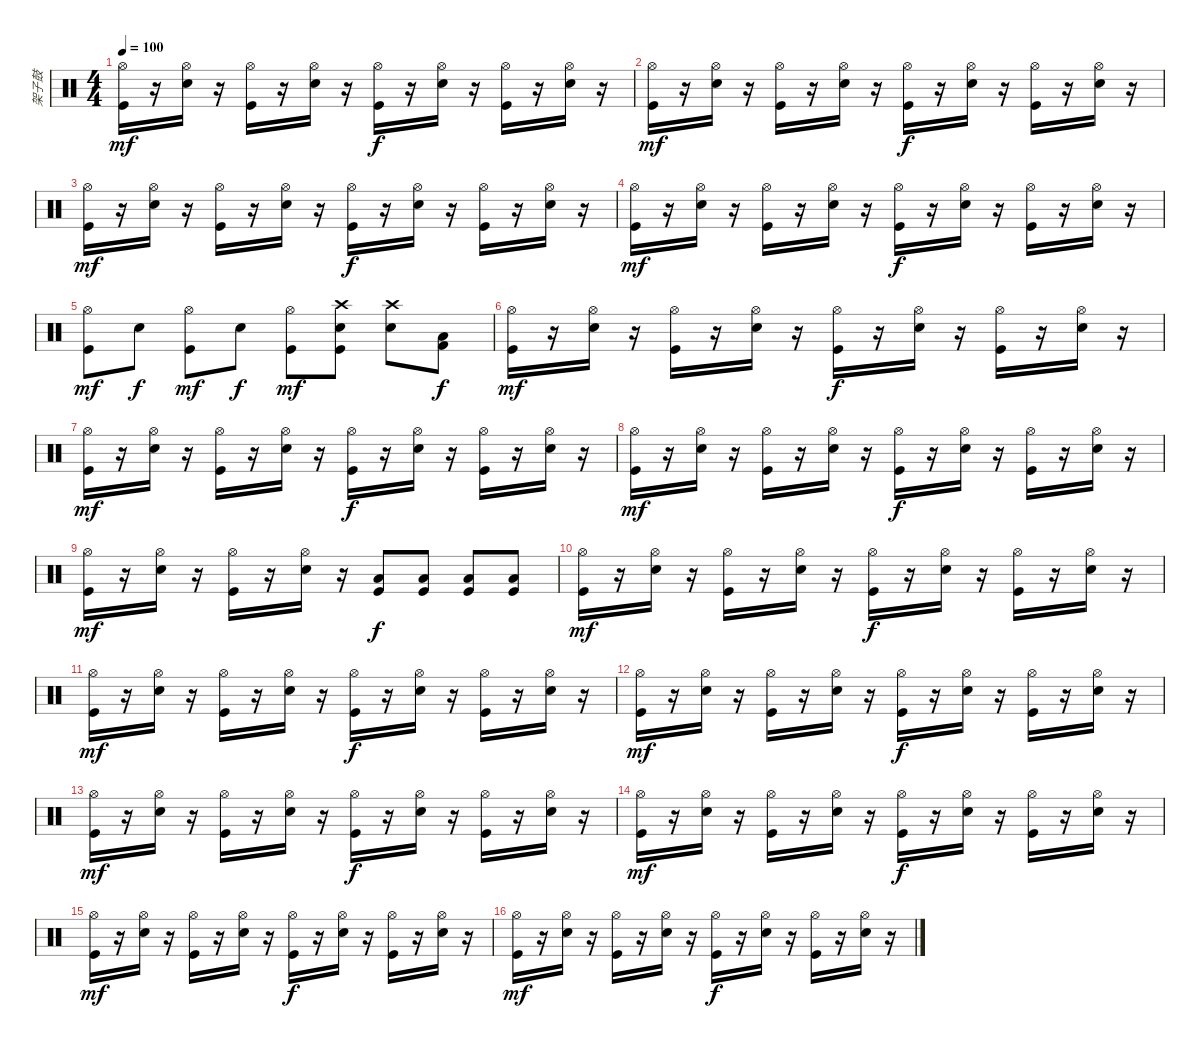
\track ("架子鼓" "架子鼓") {instrument percussion}
\staff {score}
\articulation defaults
\ts (4 4)
\tempo 100
\clef neutral
\ks c
("Hi-Hat (open)" "Kick (hit)").16{dy mf} r.16 ("Hi-Hat (open)" "Snare (hit) 2").16 r.16 ("Hi-Hat (open)" "Kick (hit)").16 r.16 ("Hi-Hat (open)" "Snare (hit) 2").16 r.16 ("Hi-Hat (open)" "Kick (hit)").16{dy f} r.16 ("Hi-Hat (open)" "Snare (hit) 2").16 r.16 ("Hi-Hat (open)" "Kick (hit)").16 r.16 ("Hi-Hat (open)" "Snare (hit) 2").16 r.16 |
("Hi-Hat (open)" "Kick (hit)").16{dy mf} r.16 ("Hi-Hat (open)" "Snare (hit) 2").16 r.16 ("Hi-Hat (open)" "Kick (hit)").16 r.16 ("Hi-Hat (open)" "Snare (hit) 2").16 r.16 ("Hi-Hat (open)" "Kick (hit)").16{dy f} r.16 ("Hi-Hat (open)" "Snare (hit) 2").16 r.16 ("Hi-Hat (open)" "Kick (hit)").16 r.16 ("Hi-Hat (open)" "Snare (hit) 2").16 r.16 |
("Hi-Hat (open)" "Kick (hit)").16{dy mf} r.16 ("Hi-Hat (open)" "Snare (hit) 2").16 r.16 ("Hi-Hat (open)" "Kick (hit)").16 r.16 ("Hi-Hat (open)" "Snare (hit) 2").16 r.16 ("Hi-Hat (open)" "Kick (hit)").16{dy f} r.16 ("Hi-Hat (open)" "Snare (hit) 2").16 r.16 ("Hi-Hat (open)" "Kick (hit)").16 r.16 ("Hi-Hat (open)" "Snare (hit) 2").16 r.16 |
("Hi-Hat (open)" "Kick (hit)").16{dy mf} r.16 ("Hi-Hat (open)" "Snare (hit) 2").16 r.16 ("Hi-Hat (open)" "Kick (hit)").16 r.16 ("Hi-Hat (open)" "Snare (hit) 2").16 r.16 ("Hi-Hat (open)" "Kick (hit)").16{dy f} r.16 ("Hi-Hat (open)" "Snare (hit) 2").16 r.16 ("Hi-Hat (open)" "Kick (hit)").16 r.16 ("Hi-Hat (open)" "Snare (hit) 2").16 r.16 |
("Hi-Hat (open)" "Kick (hit)").8{dy mf} "Snare (hit) 2".8{dy f} ("Hi-Hat (open)" "Kick (hit)").8{dy mf} "Snare (hit) 2".8{dy f} ("Hi-Hat (open)" "Kick (hit)").8{dy mf} ("Crash high (hit)" "Snare (hit) 2" "Kick (hit)").8 ("Crash high (hit)" "Snare (hit) 2").8 ("Low Tom (hit)" "Kick (hit) 2").8{dy f} |
("Hi-Hat (open)" "Kick (hit)").16{dy mf} r.16 ("Hi-Hat (open)" "Snare (hit) 2").16 r.16 ("Hi-Hat (open)" "Kick (hit)").16 r.16 ("Hi-Hat (open)" "Snare (hit) 2").16 r.16 ("Hi-Hat (open)" "Kick (hit)").16{dy f} r.16 ("Hi-Hat (open)" "Snare (hit) 2").16 r.16 ("Hi-Hat (open)" "Kick (hit)").16 r.16 ("Hi-Hat (open)" "Snare (hit) 2").16 r.16 |
("Hi-Hat (open)" "Kick (hit)").16{dy mf} r.16 ("Hi-Hat (open)" "Snare (hit) 2").16 r.16 ("Hi-Hat (open)" "Kick (hit)").16 r.16 ("Hi-Hat (open)" "Snare (hit) 2").16 r.16 ("Hi-Hat (open)" "Kick (hit)").16{dy f} r.16 ("Hi-Hat (open)" "Snare (hit) 2").16 r.16 ("Hi-Hat (open)" "Kick (hit)").16 r.16 ("Hi-Hat (open)" "Snare (hit) 2").16 r.16 |
("Hi-Hat (open)" "Kick (hit)").16{dy mf} r.16 ("Hi-Hat (open)" "Snare (hit) 2").16 r.16 ("Hi-Hat (open)" "Kick (hit)").16 r.16 ("Hi-Hat (open)" "Snare (hit) 2").16 r.16 ("Hi-Hat (open)" "Kick (hit)").16{dy f} r.16 ("Hi-Hat (open)" "Snare (hit) 2").16 r.16 ("Hi-Hat (open)" "Kick (hit)").16 r.16 ("Hi-Hat (open)" "Snare (hit) 2").16 r.16 |
("Hi-Hat (open)" "Kick (hit)").16{dy mf} r.16 ("Hi-Hat (open)" "Snare (hit) 2").16 r.16 ("Hi-Hat (open)" "Kick (hit)").16 r.16 ("Hi-Hat (open)" "Snare (hit) 2").16 r.16 ("Low Tom (hit)" "Kick (hit)").8{dy f} ("Low Tom (hit)" "Kick (hit)").8 ("Low Tom (hit)" "Kick (hit)").8 ("Low Tom (hit)" "Kick (hit)").8 |
("Hi-Hat (open)" "Kick (hit)").16{dy mf} r.16 ("Hi-Hat (open)" "Snare (hit) 2").16 r.16 ("Hi-Hat (open)" "Kick (hit)").16 r.16 ("Hi-Hat (open)" "Snare (hit) 2").16 r.16 ("Hi-Hat (open)" "Kick (hit)").16{dy f} r.16 ("Hi-Hat (open)" "Snare (hit) 2").16 r.16 ("Hi-Hat (open)" "Kick (hit)").16 r.16 ("Hi-Hat (open)" "Snare (hit) 2").16 r.16 |
("Hi-Hat (open)" "Kick (hit)").16{dy mf} r.16 ("Hi-Hat (open)" "Snare (hit) 2").16 r.16 ("Hi-Hat (open)" "Kick (hit)").16 r.16 ("Hi-Hat (open)" "Snare (hit) 2").16 r.16 ("Hi-Hat (open)" "Kick (hit)").16{dy f} r.16 ("Hi-Hat (open)" "Snare (hit) 2").16 r.16 ("Hi-Hat (open)" "Kick (hit)").16 r.16 ("Hi-Hat (open)" "Snare (hit) 2").16 r.16 |
("Hi-Hat (open)" "Kick (hit)").16{dy mf} r.16 ("Hi-Hat (open)" "Snare (hit) 2").16 r.16 ("Hi-Hat (open)" "Kick (hit)").16 r.16 ("Hi-Hat (open)" "Snare (hit) 2").16 r.16 ("Hi-Hat (open)" "Kick (hit)").16{dy f} r.16 ("Hi-Hat (open)" "Snare (hit) 2").16 r.16 ("Hi-Hat (open)" "Kick (hit)").16 r.16 ("Hi-Hat (open)" "Snare (hit) 2").16 r.16 |
("Hi-Hat (open)" "Kick (hit)").16{dy mf} r.16 ("Hi-Hat (open)" "Snare (hit) 2").16 r.16 ("Hi-Hat (open)" "Kick (hit)").16 r.16 ("Hi-Hat (open)" "Snare (hit) 2").16 r.16 ("Hi-Hat (open)" "Kick (hit)").16{dy f} r.16 ("Hi-Hat (open)" "Snare (hit) 2").16 r.16 ("Hi-Hat (open)" "Kick (hit)").16 r.16 ("Hi-Hat (open)" "Snare (hit) 2").16 r.16 |
("Hi-Hat (open)" "Kick (hit)").16{dy mf} r.16 ("Hi-Hat (open)" "Snare (hit) 2").16 r.16 ("Hi-Hat (open)" "Kick (hit)").16 r.16 ("Hi-Hat (open)" "Snare (hit) 2").16 r.16 ("Hi-Hat (open)" "Kick (hit)").16{dy f} r.16 ("Hi-Hat (open)" "Snare (hit) 2").16 r.16 ("Hi-Hat (open)" "Kick (hit)").16 r.16 ("Hi-Hat (open)" "Snare (hit) 2").16 r.16 |
("Hi-Hat (open)" "Kick (hit)").16{dy mf} r.16 ("Hi-Hat (open)" "Snare (hit) 2").16 r.16 ("Hi-Hat (open)" "Kick (hit)").16 r.16 ("Hi-Hat (open)" "Snare (hit) 2").16 r.16 ("Hi-Hat (open)" "Kick (hit)").16{dy f} r.16 ("Hi-Hat (open)" "Snare (hit) 2").16 r.16 ("Hi-Hat (open)" "Kick (hit)").16 r.16 ("Hi-Hat (open)" "Snare (hit) 2").16 r.16 |
("Hi-Hat (open)" "Kick (hit)").16{dy mf} r.16 ("Hi-Hat (open)" "Snare (hit) 2").16 r.16 ("Hi-Hat (open)" "Kick (hit)").16 r.16 ("Hi-Hat (open)" "Snare (hit) 2").16 r.16 ("Hi-Hat (open)" "Kick (hit)").16{dy f} r.16 ("Hi-Hat (open)" "Snare (hit) 2").16 r.16 ("Hi-Hat (open)" "Kick (hit)").16 r.16 ("Hi-Hat (open)" "Snare (hit) 2").16 r.16
